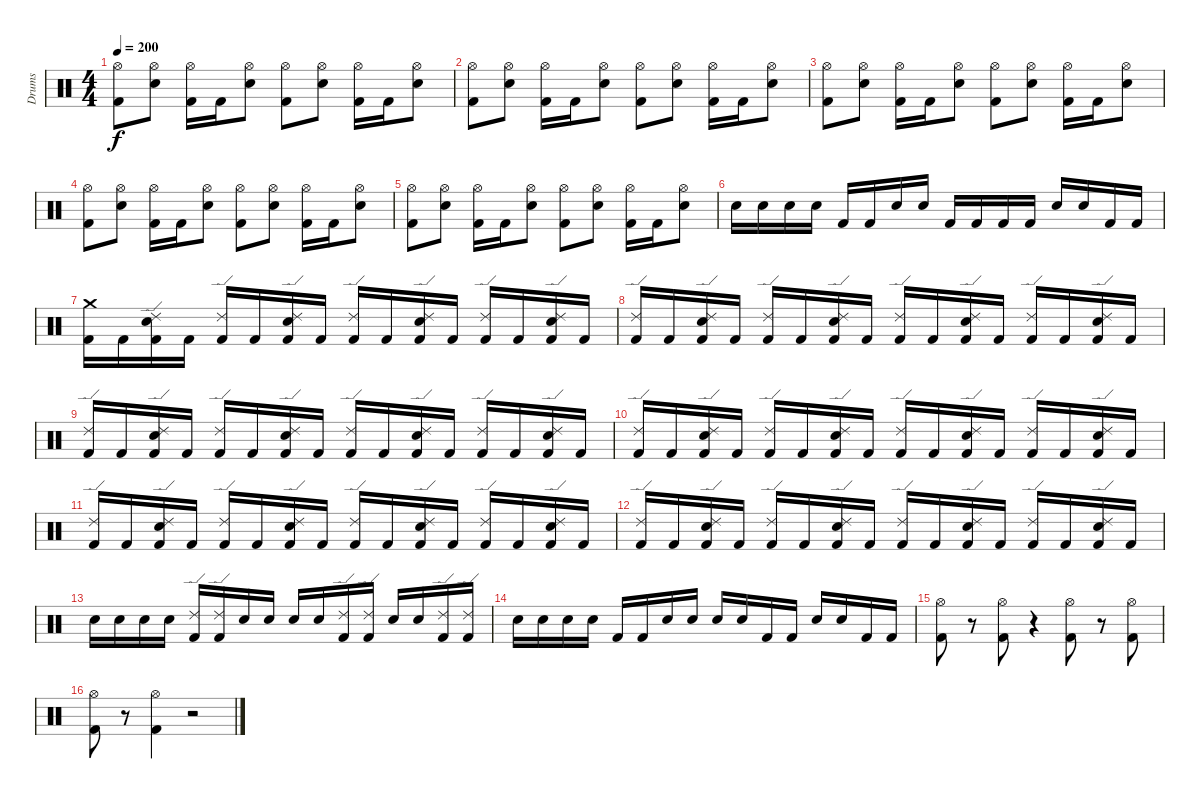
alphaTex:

\track ("Drums" "Drums") {instrument percussion}
\staff {score}
\articulation defaults
\ts (4 4)
\tempo 200
\clef neutral
\ks c
("Kick (hit) 2" "Hi-Hat (open)").8{dy f} ("Snare (hit) 2" "Hi-Hat (open)").8 ("Kick (hit) 2" "Hi-Hat (open)").16 "Kick (hit) 2".16 ("Snare (hit) 2" "Hi-Hat (open)").8 ("Kick (hit) 2" "Hi-Hat (open)").8 ("Snare (hit) 2" "Hi-Hat (open)").8 ("Kick (hit) 2" "Hi-Hat (open)").16 "Kick (hit) 2".16 ("Snare (hit) 2" "Hi-Hat (open)").8 |
("Kick (hit) 2" "Hi-Hat (open)").8 ("Snare (hit) 2" "Hi-Hat (open)").8 ("Kick (hit) 2" "Hi-Hat (open)").16 "Kick (hit) 2".16 ("Snare (hit) 2" "Hi-Hat (open)").8 ("Kick (hit) 2" "Hi-Hat (open)").8 ("Snare (hit) 2" "Hi-Hat (open)").8 ("Kick (hit) 2" "Hi-Hat (open)").16 "Kick (hit) 2".16 ("Snare (hit) 2" "Hi-Hat (open)").8 |
("Kick (hit) 2" "Hi-Hat (open)").8 ("Snare (hit) 2" "Hi-Hat (open)").8 ("Kick (hit) 2" "Hi-Hat (open)").16 "Kick (hit) 2".16 ("Snare (hit) 2" "Hi-Hat (open)").8 ("Kick (hit) 2" "Hi-Hat (open)").8 ("Snare (hit) 2" "Hi-Hat (open)").8 ("Kick (hit) 2" "Hi-Hat (open)").16 "Kick (hit) 2".16 ("Snare (hit) 2" "Hi-Hat (open)").8 |
("Kick (hit) 2" "Hi-Hat (open)").8 ("Snare (hit) 2" "Hi-Hat (open)").8 ("Kick (hit) 2" "Hi-Hat (open)").16 "Kick (hit) 2".16 ("Snare (hit) 2" "Hi-Hat (open)").8 ("Kick (hit) 2" "Hi-Hat (open)").8 ("Snare (hit) 2" "Hi-Hat (open)").8 ("Kick (hit) 2" "Hi-Hat (open)").16 "Kick (hit) 2".16 ("Snare (hit) 2" "Hi-Hat (open)").8 |
("Kick (hit) 2" "Hi-Hat (open)").8 ("Snare (hit) 2" "Hi-Hat (open)").8 ("Kick (hit) 2" "Hi-Hat (open)").16 "Kick (hit) 2".16 ("Snare (hit) 2" "Hi-Hat (open)").8 ("Kick (hit) 2" "Hi-Hat (open)").8 ("Snare (hit) 2" "Hi-Hat (open)").8 ("Kick (hit) 2" "Hi-Hat (open)").16 "Kick (hit) 2".16 ("Snare (hit) 2" "Hi-Hat (open)").8 |
"Snare (hit) 2".16 "Snare (hit) 2".16 "Snare (hit) 2".16 "Snare (hit) 2".16 "Kick (hit) 2".16 "Kick (hit) 2".16 "Snare (hit) 2".16 "Snare (hit) 2".16 "Kick (hit) 2".16 "Kick (hit) 2".16 "Kick (hit) 2".16 "Kick (hit) 2".16 "Snare (hit) 2".16 "Snare (hit) 2".16 "Kick (hit) 2".16 "Kick (hit) 2".16 |
\section ("" "")
("Kick (hit) 2" "Crash medium (hit)").16 "Kick (hit) 2".16 ("Kick (hit) 2" "Snare (hit) 2" "Ride (edge) 2").16 "Kick (hit) 2".16 ("Kick (hit) 2" "Ride (edge) 2").16 "Kick (hit) 2".16 ("Kick (hit) 2" "Snare (hit) 2" "Ride (edge) 2").16 "Kick (hit) 2".16 ("Kick (hit) 2" "Ride (edge) 2").16 "Kick (hit) 2".16 ("Kick (hit) 2" "Snare (hit) 2" "Ride (edge) 2").16 "Kick (hit) 2".16 ("Kick (hit) 2" "Ride (edge) 2").16 "Kick (hit) 2".16 ("Kick (hit) 2" "Snare (hit) 2" "Ride (edge) 2").16 "Kick (hit) 2".16 |
("Kick (hit) 2" "Ride (edge) 2").16 "Kick (hit) 2".16 ("Kick (hit) 2" "Snare (hit) 2" "Ride (edge) 2").16 "Kick (hit) 2".16 ("Kick (hit) 2" "Ride (edge) 2").16 "Kick (hit) 2".16 ("Kick (hit) 2" "Snare (hit) 2" "Ride (edge) 2").16 "Kick (hit) 2".16 ("Kick (hit) 2" "Ride (edge) 2").16 "Kick (hit) 2".16 ("Kick (hit) 2" "Snare (hit) 2" "Ride (edge) 2").16 "Kick (hit) 2".16 ("Kick (hit) 2" "Ride (edge) 2").16 "Kick (hit) 2".16 ("Kick (hit) 2" "Snare (hit) 2" "Ride (edge) 2").16 "Kick (hit) 2".16 |
("Kick (hit) 2" "Ride (edge) 2").16 "Kick (hit) 2".16 ("Kick (hit) 2" "Snare (hit) 2" "Ride (edge) 2").16 "Kick (hit) 2".16 ("Kick (hit) 2" "Ride (edge) 2").16 "Kick (hit) 2".16 ("Kick (hit) 2" "Snare (hit) 2" "Ride (edge) 2").16 "Kick (hit) 2".16 ("Kick (hit) 2" "Ride (edge) 2").16 "Kick (hit) 2".16 ("Kick (hit) 2" "Snare (hit) 2" "Ride (edge) 2").16 "Kick (hit) 2".16 ("Kick (hit) 2" "Ride (edge) 2").16 "Kick (hit) 2".16 ("Kick (hit) 2" "Snare (hit) 2" "Ride (edge) 2").16 "Kick (hit) 2".16 |
("Kick (hit) 2" "Ride (edge) 2").16 "Kick (hit) 2".16 ("Kick (hit) 2" "Snare (hit) 2" "Ride (edge) 2").16 "Kick (hit) 2".16 ("Kick (hit) 2" "Ride (edge) 2").16 "Kick (hit) 2".16 ("Kick (hit) 2" "Snare (hit) 2" "Ride (edge) 2").16 "Kick (hit) 2".16 ("Kick (hit) 2" "Ride (edge) 2").16 "Kick (hit) 2".16 ("Kick (hit) 2" "Snare (hit) 2" "Ride (edge) 2").16 "Kick (hit) 2".16 ("Kick (hit) 2" "Ride (edge) 2").16 "Kick (hit) 2".16 ("Kick (hit) 2" "Snare (hit) 2" "Ride (edge) 2").16 "Kick (hit) 2".16 |
("Kick (hit) 2" "Ride (edge) 2").16 "Kick (hit) 2".16 ("Kick (hit) 2" "Snare (hit) 2" "Ride (edge) 2").16 "Kick (hit) 2".16 ("Kick (hit) 2" "Ride (edge) 2").16 "Kick (hit) 2".16 ("Kick (hit) 2" "Snare (hit) 2" "Ride (edge) 2").16 "Kick (hit) 2".16 ("Kick (hit) 2" "Ride (edge) 2").16 "Kick (hit) 2".16 ("Kick (hit) 2" "Snare (hit) 2" "Ride (edge) 2").16 "Kick (hit) 2".16 ("Kick (hit) 2" "Ride (edge) 2").16 "Kick (hit) 2".16 ("Kick (hit) 2" "Snare (hit) 2" "Ride (edge) 2").16 "Kick (hit) 2".16 |
("Kick (hit) 2" "Ride (edge) 2").16 "Kick (hit) 2".16 ("Kick (hit) 2" "Snare (hit) 2" "Ride (edge) 2").16 "Kick (hit) 2".16 ("Kick (hit) 2" "Ride (edge) 2").16 "Kick (hit) 2".16 ("Kick (hit) 2" "Snare (hit) 2" "Ride (edge) 2").16 "Kick (hit) 2".16 ("Kick (hit) 2" "Ride (edge) 2").16 "Kick (hit) 2".16 ("Kick (hit) 2" "Snare (hit) 2" "Ride (edge) 2").16 "Kick (hit) 2".16 ("Kick (hit) 2" "Ride (edge) 2").16 "Kick (hit) 2".16 ("Kick (hit) 2" "Snare (hit) 2" "Ride (edge) 2").16 "Kick (hit) 2".16 |
"Snare (hit) 2".16 "Snare (hit) 2".16 "Snare (hit) 2".16 "Snare (hit) 2".16 ("Kick (hit) 2" "Ride (edge) 2").16 ("Kick (hit) 2" "Ride (edge) 2").16 "Snare (hit) 2".16 "Snare (hit) 2".16 "Snare (hit) 2".16 "Snare (hit) 2".16 ("Kick (hit) 2" "Ride (edge) 2").16 ("Kick (hit) 2" "Ride (edge) 2").16 "Snare (hit) 2".16 "Snare (hit) 2".16 ("Kick (hit) 2" "Ride (edge) 2").16 ("Kick (hit) 2" "Ride (edge) 2").16 |
"Snare (hit) 2".16 "Snare (hit) 2".16 "Snare (hit) 2".16 "Snare (hit) 2".16 "Kick (hit) 2".16 "Kick (hit) 2".16 "Snare (hit) 2".16 "Snare (hit) 2".16 "Snare (hit) 2".16 "Snare (hit) 2".16 "Kick (hit) 2".16 "Kick (hit) 2".16 "Snare (hit) 2".16 "Snare (hit) 2".16 "Kick (hit) 2".16 "Kick (hit) 2".16 |
\section ("" "")
("Kick (hit) 2" "Hi-Hat (open)").8 r.8 ("Kick (hit) 2" "Hi-Hat (open)").8 r.4 ("Kick (hit) 2" "Hi-Hat (open)").8 r.8 ("Kick (hit) 2" "Hi-Hat (open)").8 |
("Kick (hit) 2" "Hi-Hat (open)").8 r.8 ("Kick (hit) 2" "Hi-Hat (open)").4 r.2
